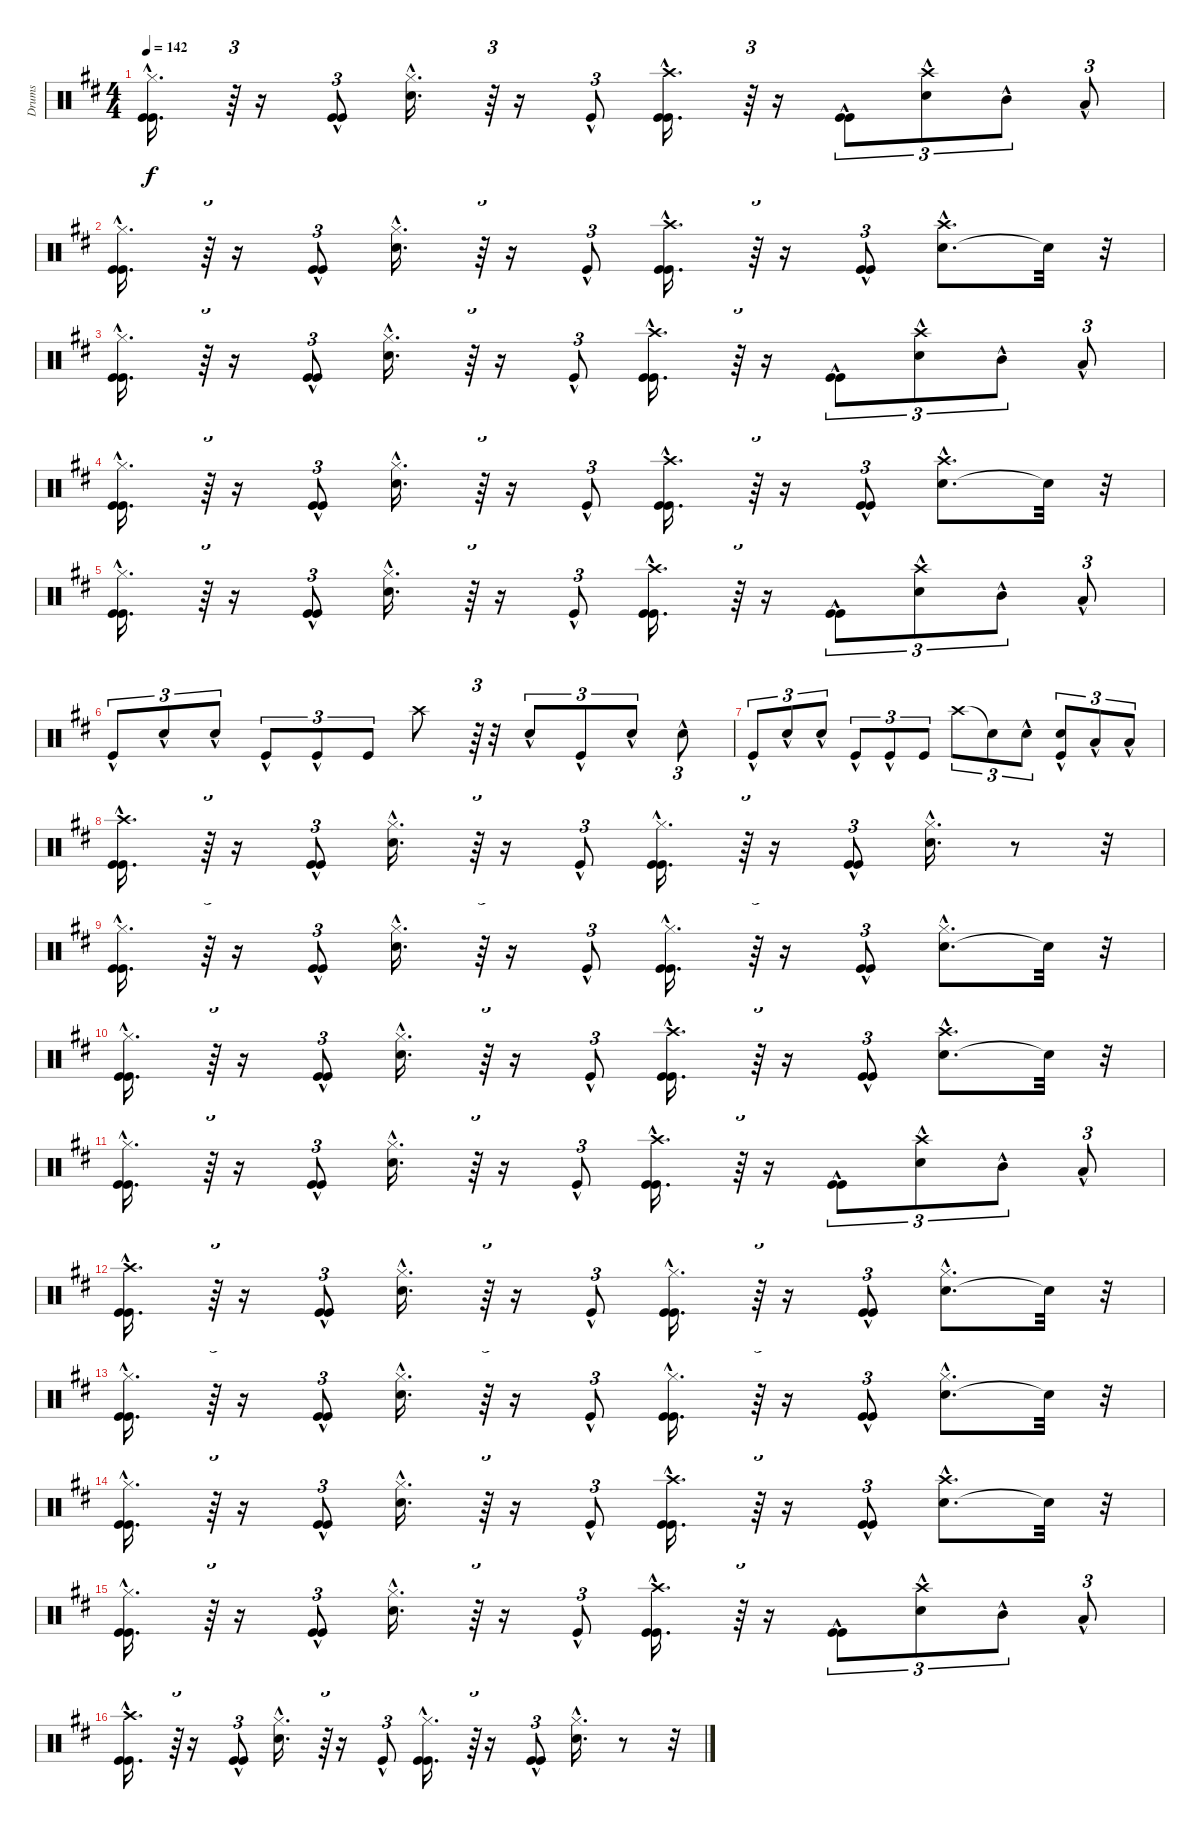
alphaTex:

\track ("Drums" "Drums") {instrument percussion}
\staff {score}
\articulation defaults
\ts (4 4)
\tempo 142
\clef neutral
\ks bminor
("Kick (hit)"{hac} "Kick (hit)"{hac} "Hi-Hat (closed)"{hac}).16{d dy f} r.64{tu (3 2)} r.16 ("Kick (hit)"{hac} "Kick (hit)"{hac}).8{tu (3 2)} ("Snare (hit) 2"{hac} "Hi-Hat (closed)"{hac}).16{d} r.64{tu (3 2)} r.16 "Kick (hit)"{hac}.8{tu (3 2)} ("Kick (hit)"{hac} "Kick (hit)"{hac} "Crash high (hit)"{hac}).16{d} r.64{tu (3 2)} r.16 ("Kick (hit)"{hac} "Kick (hit)"{hac}).8{tu (3 2)} ("Snare (hit) 2"{hac} "Crash high (hit)"{hac}).8{tu (3 2)} "Mid Tom (hit)"{hac}.8{tu (3 2)} "Low Tom (hit)"{hac}.8{tu (3 2)} |
("Kick (hit)"{hac} "Kick (hit)"{hac} "Hi-Hat (closed)"{hac}).16{d} r.64{tu (3 2)} r.16 ("Kick (hit)"{hac} "Kick (hit)"{hac}).8{tu (3 2)} ("Snare (hit) 2"{hac} "Hi-Hat (closed)"{hac}).16{d} r.64{tu (3 2)} r.16 "Kick (hit)"{hac}.8{tu (3 2)} ("Kick (hit)"{hac} "Kick (hit)"{hac} "Crash high (hit)"{hac}).16{d} r.64{tu (3 2)} r.16 ("Kick (hit)"{hac} "Kick (hit)"{hac}).8{tu (3 2)} ("Snare (hit) 2"{hac} "Crash high (hit)"{hac}).8{d} "Snare (hit)"{t}.32 r.32 |
("Kick (hit)"{hac} "Kick (hit)"{hac} "Hi-Hat (closed)"{hac}).16{d} r.64{tu (3 2)} r.16 ("Kick (hit)"{hac} "Kick (hit)"{hac}).8{tu (3 2)} ("Snare (hit) 2"{hac} "Hi-Hat (closed)"{hac}).16{d} r.64{tu (3 2)} r.16 "Kick (hit)"{hac}.8{tu (3 2)} ("Kick (hit)"{hac} "Kick (hit)"{hac} "Crash high (hit)"{hac}).16{d} r.64{tu (3 2)} r.16 ("Kick (hit)"{hac} "Kick (hit)"{hac}).8{tu (3 2)} ("Snare (hit) 2"{hac} "Crash high (hit)"{hac}).8{tu (3 2)} "Mid Tom (hit)"{hac}.8{tu (3 2)} "Low Tom (hit)"{hac}.8{tu (3 2)} |
("Kick (hit)"{hac} "Kick (hit)"{hac} "Hi-Hat (closed)"{hac}).16{d} r.64{tu (3 2)} r.16 ("Kick (hit)"{hac} "Kick (hit)"{hac}).8{tu (3 2)} ("Snare (hit) 2"{hac} "Hi-Hat (closed)"{hac}).16{d} r.64{tu (3 2)} r.16 "Kick (hit)"{hac}.8{tu (3 2)} ("Kick (hit)"{hac} "Kick (hit)"{hac} "Crash high (hit)"{hac}).16{d} r.64{tu (3 2)} r.16 ("Kick (hit)"{hac} "Kick (hit)"{hac}).8{tu (3 2)} ("Snare (hit) 2"{hac} "Crash high (hit)"{hac}).8{d} "Snare (hit)"{t}.32 r.32 |
("Kick (hit)"{hac} "Kick (hit)"{hac} "Hi-Hat (closed)"{hac}).16{d} r.64{tu (3 2)} r.16 ("Kick (hit)"{hac} "Kick (hit)"{hac}).8{tu (3 2)} ("Snare (hit) 2"{hac} "Hi-Hat (closed)"{hac}).16{d} r.64{tu (3 2)} r.16 "Kick (hit)"{hac}.8{tu (3 2)} ("Kick (hit)"{hac} "Kick (hit)"{hac} "Crash high (hit)"{hac}).16{d} r.64{tu (3 2)} r.16 ("Kick (hit)"{hac} "Kick (hit)"{hac}).8{tu (3 2)} ("Snare (hit) 2"{hac} "Crash high (hit)"{hac}).8{tu (3 2)} "Mid Tom (hit)"{hac}.8{tu (3 2)} "Low Tom (hit)"{hac}.8{tu (3 2)} |
"Kick (hit)"{hac}.8{tu (3 2)} "Snare (hit) 2"{hac}.8{tu (3 2)} "Snare (hit) 2"{hac}.8{tu (3 2)} "Kick (hit)"{hac}.8{tu (3 2)} "Kick (hit)"{hac}.8{tu (3 2)} "Kick (hit)".8{tu (3 2)} "Crash high (hit)".8 r.64{tu (3 2)} r.32 "Snare (hit) 2"{hac}.8{tu (3 2)} "Kick (hit)"{hac}.8{tu (3 2)} "Snare (hit) 2"{hac}.8{tu (3 2)} "Snare (hit) 2"{hac}.8{tu (3 2)} |
"Kick (hit)"{hac}.8{tu (3 2)} "Snare (hit) 2"{hac}.8{tu (3 2)} "Snare (hit) 2"{hac}.8{tu (3 2)} "Kick (hit)"{hac}.8{tu (3 2)} "Kick (hit)"{hac}.8{tu (3 2)} "Kick (hit)".8{tu (3 2)} "Crash high (hit)".8{tu (3 2)} "Snare (hit)"{t}.8{tu (3 2)} "Snare (hit) 2"{hac}.8{tu (3 2)} ("Kick (hit)"{hac} "Snare (hit) 2"{hac}).8{tu (3 2)} "Low Floor Tom (hit)"{hac}.8{tu (3 2)} "Low Floor Tom (hit)"{hac}.8{tu (3 2)} |
("Kick (hit)"{hac} "Kick (hit)"{hac} "Crash high (hit)"{hac}).16{d} r.64{tu (3 2)} r.16 ("Kick (hit)"{hac} "Kick (hit)"{hac}).8{tu (3 2)} ("Snare (hit) 2"{hac} "Hi-Hat (closed)"{hac}).16{d} r.64{tu (3 2)} r.16 "Kick (hit)"{hac}.8{tu (3 2)} ("Kick (hit)"{hac} "Kick (hit)"{hac} "Hi-Hat (closed)"{hac}).16{d} r.64{tu (3 2)} r.16 ("Kick (hit)"{hac} "Kick (hit)"{hac}).8{tu (3 2)} ("Snare (hit) 2"{hac} "Hi-Hat (closed)"{hac}).16{d} r.8 r.32 |
("Kick (hit)"{hac} "Kick (hit)"{hac} "Hi-Hat (closed)"{hac}).16{d} r.64{tu (3 2)} r.16 ("Kick (hit)"{hac} "Kick (hit)"{hac}).8{tu (3 2)} ("Snare (hit) 2"{hac} "Hi-Hat (closed)"{hac}).16{d} r.64{tu (3 2)} r.16 "Kick (hit)"{hac}.8{tu (3 2)} ("Kick (hit)"{hac} "Kick (hit)"{hac} "Hi-Hat (closed)"{hac}).16{d} r.64{tu (3 2)} r.16 ("Kick (hit)"{hac} "Kick (hit)"{hac}).8{tu (3 2)} ("Snare (hit) 2"{hac} "Hi-Hat (closed)"{hac}).8{d} "Snare (hit)"{t}.32 r.32 |
("Kick (hit)"{hac} "Kick (hit)"{hac} "Hi-Hat (closed)"{hac}).16{d} r.64{tu (3 2)} r.16 ("Kick (hit)"{hac} "Kick (hit)"{hac}).8{tu (3 2)} ("Snare (hit) 2"{hac} "Hi-Hat (closed)"{hac}).16{d} r.64{tu (3 2)} r.16 "Kick (hit)"{hac}.8{tu (3 2)} ("Kick (hit)"{hac} "Kick (hit)"{hac} "Crash high (hit)"{hac}).16{d} r.64{tu (3 2)} r.16 ("Kick (hit)"{hac} "Kick (hit)"{hac}).8{tu (3 2)} ("Snare (hit) 2"{hac} "Crash high (hit)"{hac}).8{d} "Snare (hit)"{t}.32 r.32 |
("Kick (hit)"{hac} "Kick (hit)"{hac} "Hi-Hat (closed)"{hac}).16{d} r.64{tu (3 2)} r.16 ("Kick (hit)"{hac} "Kick (hit)"{hac}).8{tu (3 2)} ("Snare (hit) 2"{hac} "Hi-Hat (closed)"{hac}).16{d} r.64{tu (3 2)} r.16 "Kick (hit)"{hac}.8{tu (3 2)} ("Kick (hit)"{hac} "Kick (hit)"{hac} "Crash high (hit)"{hac}).16{d} r.64{tu (3 2)} r.16 ("Kick (hit)"{hac} "Kick (hit)"{hac}).8{tu (3 2)} ("Snare (hit) 2"{hac} "Crash high (hit)"{hac}).8{tu (3 2)} "Mid Tom (hit)"{hac}.8{tu (3 2)} "Low Tom (hit)"{hac}.8{tu (3 2)} |
("Kick (hit)"{hac} "Kick (hit)"{hac} "Crash high (hit)"{hac}).16{d} r.64{tu (3 2)} r.16 ("Kick (hit)"{hac} "Kick (hit)"{hac}).8{tu (3 2)} ("Snare (hit) 2"{hac} "Hi-Hat (closed)"{hac}).16{d} r.64{tu (3 2)} r.16 "Kick (hit)"{hac}.8{tu (3 2)} ("Kick (hit)"{hac} "Kick (hit)"{hac} "Hi-Hat (closed)"{hac}).16{d} r.64{tu (3 2)} r.16 ("Kick (hit)"{hac} "Kick (hit)"{hac}).8{tu (3 2)} ("Snare (hit) 2"{hac} "Hi-Hat (closed)"{hac}).8{d} "Snare (hit)"{t}.32 r.32 |
("Kick (hit)"{hac} "Kick (hit)"{hac} "Hi-Hat (closed)"{hac}).16{d} r.64{tu (3 2)} r.16 ("Kick (hit)"{hac} "Kick (hit)"{hac}).8{tu (3 2)} ("Snare (hit) 2"{hac} "Hi-Hat (closed)"{hac}).16{d} r.64{tu (3 2)} r.16 "Kick (hit)"{hac}.8{tu (3 2)} ("Kick (hit)"{hac} "Kick (hit)"{hac} "Hi-Hat (closed)"{hac}).16{d} r.64{tu (3 2)} r.16 ("Kick (hit)"{hac} "Kick (hit)"{hac}).8{tu (3 2)} ("Snare (hit) 2"{hac} "Hi-Hat (closed)"{hac}).8{d} "Snare (hit)"{t}.32 r.32 |
("Kick (hit)"{hac} "Kick (hit)"{hac} "Hi-Hat (closed)"{hac}).16{d} r.64{tu (3 2)} r.16 ("Kick (hit)"{hac} "Kick (hit)"{hac}).8{tu (3 2)} ("Snare (hit) 2"{hac} "Hi-Hat (closed)"{hac}).16{d} r.64{tu (3 2)} r.16 "Kick (hit)"{hac}.8{tu (3 2)} ("Kick (hit)"{hac} "Kick (hit)"{hac} "Crash high (hit)"{hac}).16{d} r.64{tu (3 2)} r.16 ("Kick (hit)"{hac} "Kick (hit)"{hac}).8{tu (3 2)} ("Snare (hit) 2"{hac} "Crash high (hit)"{hac}).8{d} "Snare (hit)"{t}.32 r.32 |
("Kick (hit)"{hac} "Kick (hit)"{hac} "Hi-Hat (closed)"{hac}).16{d} r.64{tu (3 2)} r.16 ("Kick (hit)"{hac} "Kick (hit)"{hac}).8{tu (3 2)} ("Snare (hit) 2"{hac} "Hi-Hat (closed)"{hac}).16{d} r.64{tu (3 2)} r.16 "Kick (hit)"{hac}.8{tu (3 2)} ("Kick (hit)"{hac} "Kick (hit)"{hac} "Crash high (hit)"{hac}).16{d} r.64{tu (3 2)} r.16 ("Kick (hit)"{hac} "Kick (hit)"{hac}).8{tu (3 2)} ("Snare (hit) 2"{hac} "Crash high (hit)"{hac}).8{tu (3 2)} "Mid Tom (hit)"{hac}.8{tu (3 2)} "Low Tom (hit)"{hac}.8{tu (3 2)} |
("Kick (hit)"{hac} "Kick (hit)"{hac} "Crash high (hit)"{hac}).16{d} r.64{tu (3 2)} r.16 ("Kick (hit)"{hac} "Kick (hit)"{hac}).8{tu (3 2)} ("Snare (hit) 2"{hac} "Hi-Hat (closed)"{hac}).16{d} r.64{tu (3 2)} r.16 "Kick (hit)"{hac}.8{tu (3 2)} ("Kick (hit)"{hac} "Kick (hit)"{hac} "Hi-Hat (closed)"{hac}).16{d} r.64{tu (3 2)} r.16 ("Kick (hit)"{hac} "Kick (hit)"{hac}).8{tu (3 2)} ("Snare (hit) 2"{hac} "Hi-Hat (closed)"{hac}).16{d} r.8 r.32
